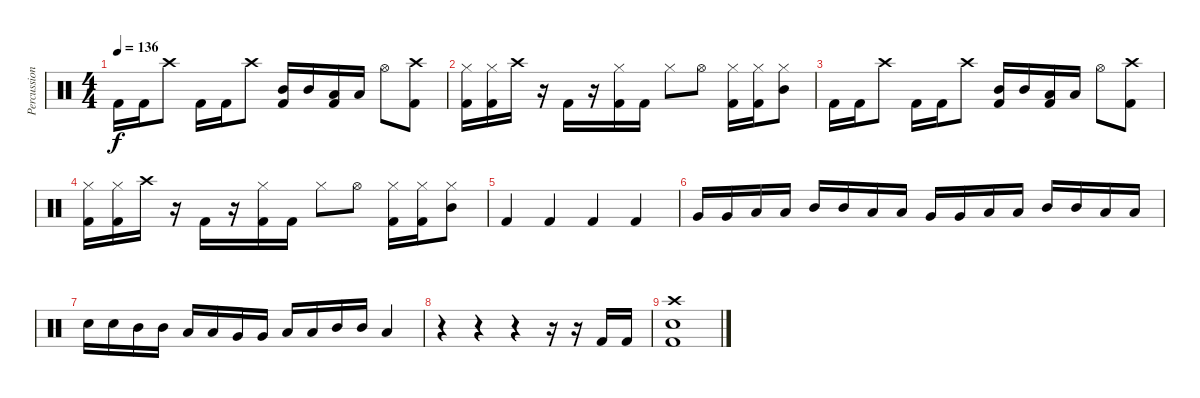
\track ("Percussion" "Percussion") {instrument percussion}
\staff {score}
\articulation defaults
\ts (4 4)
\tempo 136
\clef neutral
\ks c "Kick (hit) 2".16{dy f} "Kick (hit) 2".16 "Crash high (hit)".8 "Kick (hit) 2".16 "Kick (hit) 2".16 "Crash high (hit)".8
("Mid Tom (hit)" "Kick (hit) 2").16 "Mid Tom (hit)".16 ("Low Tom (hit)" "Kick (hit) 2").16 "Low Tom (hit)".16 "Hi-Hat (open)".8 ("Crash high (hit)" "Kick (hit) 2").8 |
("Kick (hit) 2" "Hi-Hat (closed)").16 ("Kick (hit) 2" "Hi-Hat (closed)").16 "Crash high (hit)".16 r.16 "Kick (hit) 2".16 r.16 ("Kick (hit) 2" "Hi-Hat (closed)").16 "Kick (hit) 2".16 "Hi-Hat (closed)".8 "Hi-Hat (open)".8 ("Kick (hit) 2" "Hi-Hat (closed)").16 ("Kick (hit) 2" "Hi-Hat (closed)").16 ("Hi-Hat (closed)" "Mid Tom (hit)").8 |
"Kick (hit) 2".16 "Kick (hit) 2".16 "Crash high (hit)".8 "Kick (hit) 2".16 "Kick (hit) 2".16 "Crash high (hit)".8 ("Mid Tom (hit)" "Kick (hit) 2").16 "Mid Tom (hit)".16 ("Low Tom (hit)" "Kick (hit) 2").16 "Low Tom (hit)".16 "Hi-Hat (open)".8 ("Crash high (hit)" "Kick (hit) 2").8 |
("Kick (hit) 2" "Hi-Hat (closed)").16 ("Kick (hit) 2" "Hi-Hat (closed)").16 "Crash high (hit)".16 r.16 "Kick (hit) 2".16 r.16 ("Kick (hit) 2" "Hi-Hat (closed)").16 "Kick (hit) 2".16 "Hi-Hat (closed)".8 "Hi-Hat (open)".8 ("Kick (hit) 2" "Hi-Hat (closed)").16 ("Kick (hit) 2" "Hi-Hat (closed)").16 ("Hi-Hat (closed)" "Mid Tom (hit)").8 |
"Kick (hit) 2".4 "Kick (hit) 2".4 "Kick (hit) 2".4 "Kick (hit) 2".4 |
"Very Low Tom (hit)".16 "Very Low Tom (hit)".16 "Low Tom (hit)".16 "Low Tom (hit)".16 "Mid Tom (hit)".16 "Mid Tom (hit)".16 "Low Tom (hit)".16 "Low Tom (hit)".16 "Very Low Tom (hit)".16 "Very Low Tom (hit)".16 "Low Tom (hit)".16 "Low Tom (hit)".16 "Mid Tom (hit)".16 "Mid Tom (hit)".16 "Low Tom (hit)".16 "Low Tom (hit)".16 |
"Snare (hit) 2".16 "Snare (hit) 2".16 "Mid Tom (hit)".16 "Mid Tom (hit)".16 "Low Tom (hit)".16 "Low Tom (hit)".16 "Very Low Tom (hit)".16 "Very Low Tom (hit)".16 "Low Tom (hit)".16 "Low Tom (hit)".16 "Mid Tom (hit)".16 "Mid Tom (hit)".16 "Low Tom (hit)".4 |
r.4 r.4 r.4 r.16 r.16 "Kick (hit) 2".16 "Kick (hit) 2".16 |
("Crash high (hit)" "Kick (hit) 2" "Snare (hit) 2").1
